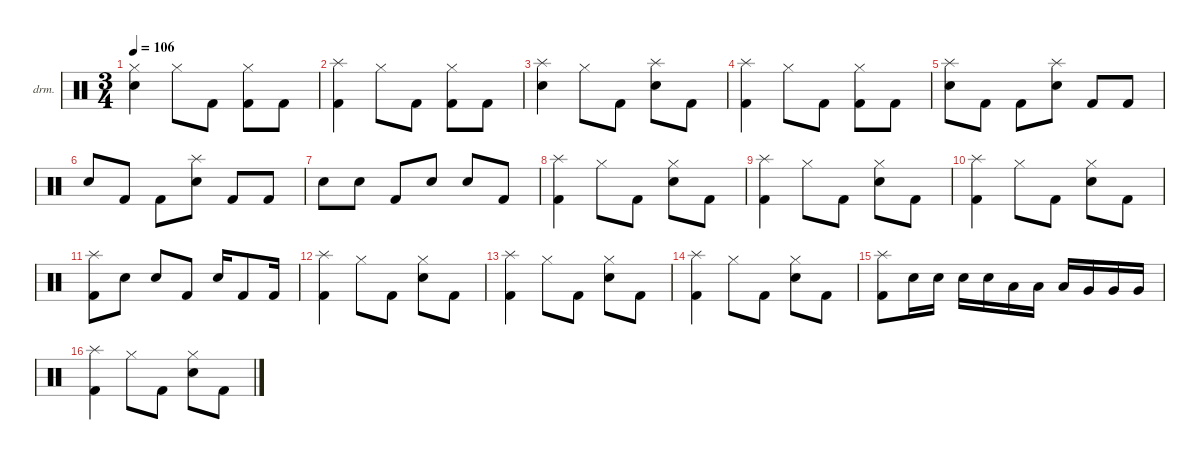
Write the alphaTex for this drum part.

\defaultSystemsLayout 4
\hideDynamics
\bracketExtendMode nobrackets
\firstSystemTrackNameOrientation horizontal
\otherSystemsTrackNameOrientation horizontal
\track ("Lars Ulrich" "drm.") {instrument percussion}
\staff {score}
\articulation defaults
\ts (3 4)
\tempo 106
\clef neutral
\ks c
("Hi-Hat (closed)" "Snare (hit) 2").4{dy f} "Hi-Hat (closed)".8 "Kick (hit) 2".8 ("Hi-Hat (closed)" "Kick (hit) 2").8 "Kick (hit) 2".8 |
("Splash (hit)" "Kick (hit) 2").4{dy fff} "Hi-Hat (closed)".8{dy f} "Kick (hit) 2".8 ("Hi-Hat (closed)" "Kick (hit) 2").8 "Kick (hit) 2".8 |
("Splash (hit)" "Snare (hit) 2").4{dy fff} "Hi-Hat (closed)".8{dy f} "Kick (hit) 2".8 ("Splash (hit)" "Snare (hit) 2").8{dy fff} "Kick (hit) 2".8{dy f} |
("Splash (hit)" "Kick (hit) 2").4{dy fff} "Hi-Hat (closed)".8{dy f} "Kick (hit) 2".8 ("Hi-Hat (closed)" "Kick (hit) 2").8 "Kick (hit) 2".8 |
("Splash (hit)" "Snare (hit) 2").8{dy fff} "Kick (hit) 2".8{dy f} "Kick (hit) 2".8 ("Splash (hit)" "Snare (hit) 2").8{dy fff} "Kick (hit) 2".8{dy f} "Kick (hit) 2".8 |
"Snare (hit) 2".8 "Kick (hit) 2".8 "Kick (hit) 2".8 ("Splash (hit)" "Snare (hit) 2").8{dy fff} "Kick (hit) 2".8{dy f} "Kick (hit) 2".8 |
"Snare (hit) 2".8 "Snare (hit) 2".8 "Kick (hit) 2".8 "Snare (hit) 2".8 "Snare (hit) 2".8 "Kick (hit) 2".8 |
("Splash (hit)" "Kick (hit) 2").4{dy fff} "Hi-Hat (closed)".8{dy f} "Kick (hit) 2".8 ("Hi-Hat (closed)" "Snare (hit) 2").8{dy fff} "Kick (hit) 2".8{dy f} |
("Splash (hit)" "Kick (hit) 2").4{dy fff} "Hi-Hat (closed)".8{dy f} "Kick (hit) 2".8 ("Hi-Hat (closed)" "Snare (hit) 2").8{dy fff} "Kick (hit) 2".8{dy f} |
("Splash (hit)" "Kick (hit) 2").4{dy fff} "Hi-Hat (closed)".8{dy f} "Kick (hit) 2".8 ("Hi-Hat (closed)" "Snare (hit) 2").8{dy fff} "Kick (hit) 2".8{dy f} |
("Splash (hit)" "Kick (hit) 2").8{dy fff} "Snare (hit) 2".8{dy f} "Snare (hit) 2".8 "Kick (hit) 2".8 "Snare (hit) 2".16 "Kick (hit) 2".8 "Kick (hit) 2".16 |
("Splash (hit)" "Kick (hit) 2").4{dy fff} "Hi-Hat (closed)".8{dy f} "Kick (hit) 2".8 ("Hi-Hat (closed)" "Snare (hit) 2").8{dy fff} "Kick (hit) 2".8{dy f} |
("Splash (hit)" "Kick (hit) 2").4{dy fff} "Hi-Hat (closed)".8{dy f} "Kick (hit) 2".8 ("Hi-Hat (closed)" "Snare (hit) 2").8{dy fff} "Kick (hit) 2".8{dy f} |
("Splash (hit)" "Kick (hit) 2").4{dy fff} "Hi-Hat (closed)".8{dy f} "Kick (hit) 2".8 ("Hi-Hat (closed)" "Snare (hit) 2").8{dy fff} "Kick (hit) 2".8{dy f} |
("Splash (hit)" "Kick (hit) 2").8{dy fff} "Snare (hit) 2".16{dy f} "Snare (hit) 2".16 "Snare (hit) 2".16 "Snare (hit) 2".16 "Low Tom (hit)".16 "Low Tom (hit)".16 "Low Tom (hit)".16 "Very Low Tom (hit)".16 "Very Low Tom (hit)".16 "Very Low Tom (hit)".16 |
("Splash (hit)" "Kick (hit) 2").4{dy fff} "Hi-Hat (closed)".8{dy f} "Kick (hit) 2".8 ("Hi-Hat (closed)" "Snare (hit) 2").8{dy fff} "Kick (hit) 2".8{dy f}
